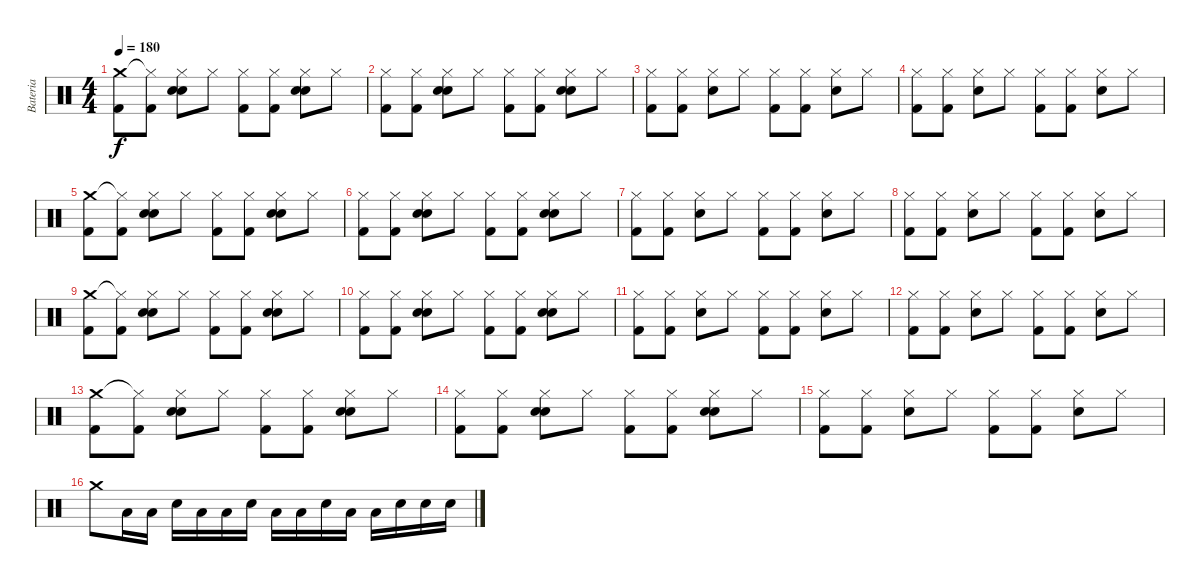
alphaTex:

\track ("Bateria" "Bateria") {instrument percussion}
\staff {score}
\articulation defaults
\ts (4 4)
\tempo 180
\clef neutral
\ks c
("Crash medium (hit)" "Kick (hit) 2").8{dy f} ("Hi-Hat (closed)"{t} "Kick (hit) 2").8 ("Hi-Hat (closed)" "Snare (hit) 2" "Electric Snare (hit)").8 "Hi-Hat (closed)".8 ("Hi-Hat (closed)" "Kick (hit) 2").8 ("Hi-Hat (closed)" "Kick (hit) 2").8 ("Hi-Hat (closed)" "Snare (hit) 2" "Electric Snare (hit)").8 "Hi-Hat (closed)".8 |
("Hi-Hat (closed)" "Kick (hit) 2").8 ("Hi-Hat (closed)" "Kick (hit) 2").8 ("Hi-Hat (closed)" "Snare (hit) 2" "Electric Snare (hit)").8 "Hi-Hat (closed)".8 ("Hi-Hat (closed)" "Kick (hit) 2").8 ("Hi-Hat (closed)" "Kick (hit) 2").8 ("Hi-Hat (closed)" "Snare (hit) 2" "Electric Snare (hit)").8 "Hi-Hat (closed)".8 |
("Hi-Hat (closed)" "Kick (hit) 2").8 ("Hi-Hat (closed)" "Kick (hit) 2").8 ("Hi-Hat (closed)" "Electric Snare (hit)").8 "Hi-Hat (closed)".8 ("Hi-Hat (closed)" "Kick (hit) 2").8 ("Hi-Hat (closed)" "Kick (hit) 2").8 ("Hi-Hat (closed)" "Electric Snare (hit)").8 "Hi-Hat (closed)".8 |
("Hi-Hat (closed)" "Kick (hit) 2").8 ("Hi-Hat (closed)" "Kick (hit) 2").8 ("Hi-Hat (closed)" "Electric Snare (hit)").8 "Hi-Hat (closed)".8 ("Hi-Hat (closed)" "Kick (hit) 2").8 ("Hi-Hat (closed)" "Kick (hit) 2").8 ("Hi-Hat (closed)" "Electric Snare (hit)").8 "Hi-Hat (closed)".8 |
("Crash medium (hit)" "Kick (hit) 2").8 ("Hi-Hat (closed)"{t} "Kick (hit) 2").8 ("Hi-Hat (closed)" "Snare (hit) 2" "Electric Snare (hit)").8 "Hi-Hat (closed)".8 ("Hi-Hat (closed)" "Kick (hit) 2").8 ("Hi-Hat (closed)" "Kick (hit) 2").8 ("Hi-Hat (closed)" "Snare (hit) 2" "Electric Snare (hit)").8 "Hi-Hat (closed)".8 |
("Hi-Hat (closed)" "Kick (hit) 2").8 ("Hi-Hat (closed)" "Kick (hit) 2").8 ("Hi-Hat (closed)" "Snare (hit) 2" "Electric Snare (hit)").8 "Hi-Hat (closed)".8 ("Hi-Hat (closed)" "Kick (hit) 2").8 ("Hi-Hat (closed)" "Kick (hit) 2").8 ("Hi-Hat (closed)" "Snare (hit) 2" "Electric Snare (hit)").8 "Hi-Hat (closed)".8 |
("Hi-Hat (closed)" "Kick (hit) 2").8 ("Hi-Hat (closed)" "Kick (hit) 2").8 ("Hi-Hat (closed)" "Electric Snare (hit)").8 "Hi-Hat (closed)".8 ("Hi-Hat (closed)" "Kick (hit) 2").8 ("Hi-Hat (closed)" "Kick (hit) 2").8 ("Hi-Hat (closed)" "Electric Snare (hit)").8 "Hi-Hat (closed)".8 |
("Hi-Hat (closed)" "Kick (hit) 2").8 ("Hi-Hat (closed)" "Kick (hit) 2").8 ("Hi-Hat (closed)" "Electric Snare (hit)").8 "Hi-Hat (closed)".8 ("Hi-Hat (closed)" "Kick (hit) 2").8 ("Hi-Hat (closed)" "Kick (hit) 2").8 ("Hi-Hat (closed)" "Electric Snare (hit)").8 "Hi-Hat (closed)".8 |
("Crash medium (hit)" "Kick (hit) 2").8 ("Hi-Hat (closed)"{t} "Kick (hit) 2").8 ("Hi-Hat (closed)" "Snare (hit) 2" "Electric Snare (hit)").8 "Hi-Hat (closed)".8 ("Hi-Hat (closed)" "Kick (hit) 2").8 ("Hi-Hat (closed)" "Kick (hit) 2").8 ("Hi-Hat (closed)" "Snare (hit) 2" "Electric Snare (hit)").8 "Hi-Hat (closed)".8 |
("Hi-Hat (closed)" "Kick (hit) 2").8 ("Hi-Hat (closed)" "Kick (hit) 2").8 ("Hi-Hat (closed)" "Snare (hit) 2" "Electric Snare (hit)").8 "Hi-Hat (closed)".8 ("Hi-Hat (closed)" "Kick (hit) 2").8 ("Hi-Hat (closed)" "Kick (hit) 2").8 ("Hi-Hat (closed)" "Snare (hit) 2" "Electric Snare (hit)").8 "Hi-Hat (closed)".8 |
("Hi-Hat (closed)" "Kick (hit) 2").8 ("Hi-Hat (closed)" "Kick (hit) 2").8 ("Hi-Hat (closed)" "Electric Snare (hit)").8 "Hi-Hat (closed)".8 ("Hi-Hat (closed)" "Kick (hit) 2").8 ("Hi-Hat (closed)" "Kick (hit) 2").8 ("Hi-Hat (closed)" "Electric Snare (hit)").8 "Hi-Hat (closed)".8 |
("Hi-Hat (closed)" "Kick (hit) 2").8 ("Hi-Hat (closed)" "Kick (hit) 2").8 ("Hi-Hat (closed)" "Electric Snare (hit)").8 "Hi-Hat (closed)".8 ("Hi-Hat (closed)" "Kick (hit) 2").8 ("Hi-Hat (closed)" "Kick (hit) 2").8 ("Hi-Hat (closed)" "Electric Snare (hit)").8 "Hi-Hat (closed)".8 |
("Crash medium (hit)" "Kick (hit) 2").8 ("Hi-Hat (closed)"{t} "Kick (hit) 2").8 ("Hi-Hat (closed)" "Snare (hit) 2" "Electric Snare (hit)").8 "Hi-Hat (closed)".8 ("Hi-Hat (closed)" "Kick (hit) 2").8 ("Hi-Hat (closed)" "Kick (hit) 2").8 ("Hi-Hat (closed)" "Snare (hit) 2" "Electric Snare (hit)").8 "Hi-Hat (closed)".8 |
("Hi-Hat (closed)" "Kick (hit) 2").8 ("Hi-Hat (closed)" "Kick (hit) 2").8 ("Hi-Hat (closed)" "Snare (hit) 2" "Electric Snare (hit)").8 "Hi-Hat (closed)".8 ("Hi-Hat (closed)" "Kick (hit) 2").8 ("Hi-Hat (closed)" "Kick (hit) 2").8 ("Hi-Hat (closed)" "Snare (hit) 2" "Electric Snare (hit)").8 "Hi-Hat (closed)".8 |
("Hi-Hat (closed)" "Kick (hit) 2").8 ("Hi-Hat (closed)" "Kick (hit) 2").8 ("Hi-Hat (closed)" "Electric Snare (hit)").8 "Hi-Hat (closed)".8 ("Hi-Hat (closed)" "Kick (hit) 2").8 ("Hi-Hat (closed)" "Kick (hit) 2").8 ("Hi-Hat (closed)" "Electric Snare (hit)").8 "Hi-Hat (closed)".8 |
"Crash medium (hit)".8 "Low Tom (hit)".16 "Low Tom (hit)".16 "Electric Snare (hit)".16 "Low Tom (hit)".16 "Low Tom (hit)".16 "Electric Snare (hit)".16 "Low Tom (hit)".16 "Low Tom (hit)".16 "Electric Snare (hit)".16 "Low Tom (hit)".16 "Low Tom (hit)".16 "Electric Snare (hit)".16 "Electric Snare (hit)".16 "Electric Snare (hit)".16
